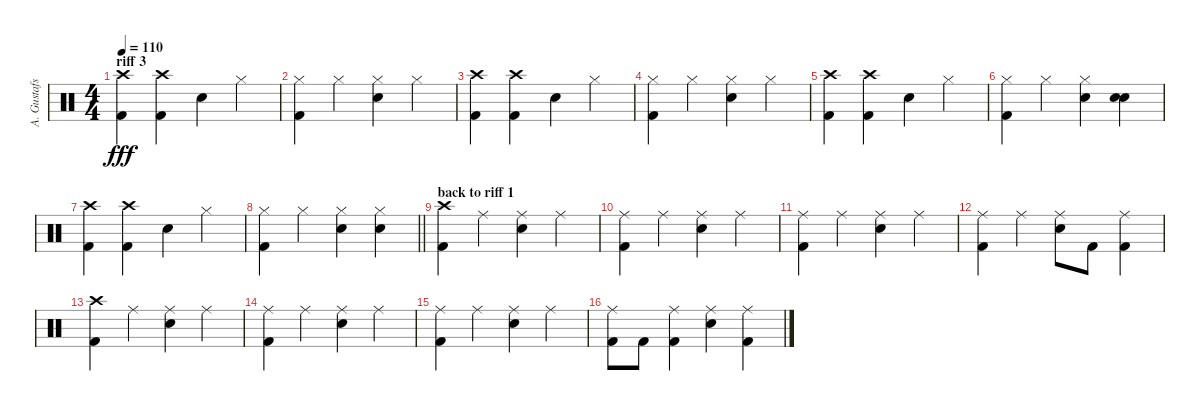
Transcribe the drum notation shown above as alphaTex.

\track ("A. Gustafsson" "A. Gustafs") {instrument percussion}
\staff {score}
\articulation defaults
\ts (4 4)
\section ("" "riff 3")
\tempo 110
\clef neutral
\ks c
("Crash high (hit)" "Kick (hit) 2").4{dy fff} ("Crash high (hit)" "Kick (hit) 2").4 "Snare (hit) 2".4 "Hi-Hat (closed)".4 |
("Hi-Hat (closed)" "Kick (hit) 2").4 "Hi-Hat (closed)".4 ("Hi-Hat (closed)" "Snare (hit) 2").4 "Hi-Hat (closed)".4 |
("Crash high (hit)" "Kick (hit) 2").4 ("Crash high (hit)" "Kick (hit) 2").4 "Snare (hit) 2".4 "Hi-Hat (closed)".4 |
("Hi-Hat (closed)" "Kick (hit) 2").4 "Hi-Hat (closed)".4 ("Hi-Hat (closed)" "Snare (hit) 2").4 "Hi-Hat (closed)".4 |
("Crash high (hit)" "Kick (hit) 2").4 ("Crash high (hit)" "Kick (hit) 2").4 "Snare (hit) 2".4 "Hi-Hat (closed)".4 |
("Hi-Hat (closed)" "Kick (hit) 2").4 "Hi-Hat (closed)".4 ("Hi-Hat (closed)" "Snare (hit) 2").4 ("Snare (hit) 2" "Snare (hit) 2").4 |
("Crash high (hit)" "Kick (hit) 2").4 ("Crash high (hit)" "Kick (hit) 2").4 "Snare (hit) 2".4 "Hi-Hat (closed)".4 |
\barLineRight lightlight
("Hi-Hat (closed)" "Kick (hit) 2").4 "Hi-Hat (closed)".4 ("Hi-Hat (closed)" "Snare (hit) 2").4 ("Hi-Hat (closed)" "Snare (hit) 2").4 |
\section ("" "back to riff 1")
("Crash high (hit)" "Kick (hit) 2").4 "Ride (middle)".4 ("Ride (middle)" "Electric Snare (hit)").4 "Ride (middle)".4 |
("Ride (middle)" "Kick (hit) 2").4 "Ride (middle)".4 ("Ride (middle)" "Electric Snare (hit)").4 "Ride (middle)".4 |
("Ride (middle)" "Kick (hit) 2").4 "Ride (middle)".4 ("Ride (middle)" "Electric Snare (hit)").4 "Ride (middle)".4 |
("Ride (middle)" "Kick (hit) 2").4 "Ride (middle)".4 ("Ride (middle)" "Electric Snare (hit)").8 "Kick (hit) 2".8 ("Ride (middle)" "Kick (hit) 2").4 |
("Crash high (hit)" "Kick (hit) 2").4 "Ride (middle)".4 ("Ride (middle)" "Electric Snare (hit)").4 "Ride (middle)".4 |
("Ride (middle)" "Kick (hit) 2").4 "Ride (middle)".4 ("Ride (middle)" "Electric Snare (hit)").4 "Ride (middle)".4 |
("Ride (middle)" "Kick (hit) 2").4 "Ride (middle)".4 ("Ride (middle)" "Electric Snare (hit)").4 "Ride (middle)".4 |
("Ride (middle)" "Kick (hit) 2").8 "Kick (hit) 2".8 ("Ride (middle)" "Kick (hit) 2").4 ("Ride (middle)" "Electric Snare (hit)").4 ("Ride (middle)" "Kick (hit) 2").4
